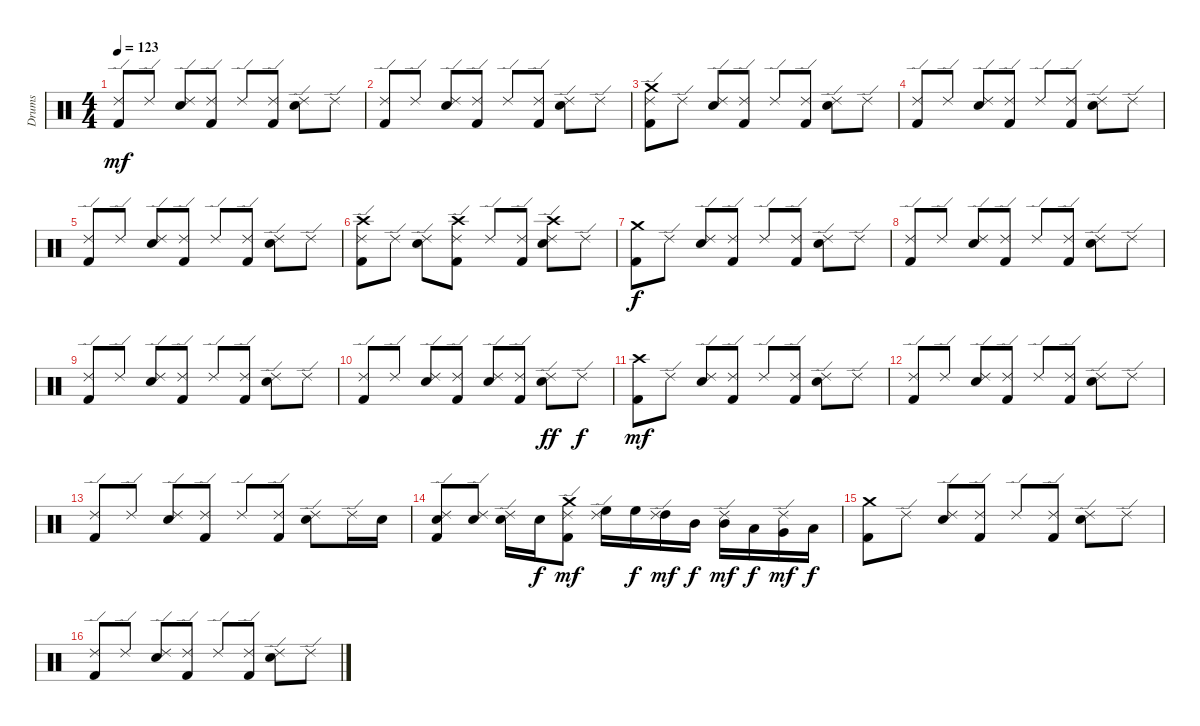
\track ("Drums" "Drums") {instrument percussion}
\staff {score}
\articulation defaults
\ts (4 4)
\tempo 123
\clef neutral
\ks c
("Kick (hit) 2" "Ride (edge) 2").8{dy mf} "Ride (edge) 2".8 ("Electric Snare (hit)" "Ride (edge) 2").8 ("Kick (hit) 2" "Ride (edge) 2").8 "Ride (edge) 2".8 ("Kick (hit) 2" "Ride (edge) 2").8 ("Electric Snare (hit)" "Ride (edge) 2").8 "Ride (edge) 2".8 |
("Kick (hit) 2" "Ride (edge) 2").8 "Ride (edge) 2".8 ("Electric Snare (hit)" "Ride (edge) 2").8 ("Kick (hit) 2" "Ride (edge) 2").8 "Ride (edge) 2".8 ("Kick (hit) 2" "Ride (edge) 2").8 ("Electric Snare (hit)" "Ride (edge) 2").8 "Ride (edge) 2".8 |
("Kick (hit) 2" "Crash medium (hit)" "Ride (edge) 2").8 "Ride (edge) 2".8 ("Electric Snare (hit)" "Ride (edge) 2").8 ("Kick (hit) 2" "Ride (edge) 2").8 "Ride (edge) 2".8 ("Kick (hit) 2" "Ride (edge) 2").8 ("Electric Snare (hit)" "Ride (edge) 2").8 "Ride (edge) 2".8 |
("Kick (hit) 2" "Ride (edge) 2").8 "Ride (edge) 2".8 ("Electric Snare (hit)" "Ride (edge) 2").8 ("Kick (hit) 2" "Ride (edge) 2").8 "Ride (edge) 2".8 ("Kick (hit) 2" "Ride (edge) 2").8 ("Electric Snare (hit)" "Ride (edge) 2").8 "Ride (edge) 2".8 |
("Kick (hit) 2" "Ride (edge) 2").8 "Ride (edge) 2".8 ("Electric Snare (hit)" "Ride (edge) 2").8 ("Kick (hit) 2" "Ride (edge) 2").8 "Ride (edge) 2".8 ("Kick (hit) 2" "Ride (edge) 2").8 ("Electric Snare (hit)" "Ride (edge) 2").8 "Ride (edge) 2".8 |
("Kick (hit) 2" "Crash high (hit)" "Ride (edge) 2").8 "Ride (edge) 2".8 ("Electric Snare (hit)" "Ride (edge) 2").8 ("Kick (hit) 2" "Crash high (hit)" "Ride (edge) 2").8 "Ride (edge) 2".8 ("Kick (hit) 2" "Ride (edge) 2").8 ("Electric Snare (hit)" "Crash high (hit)" "Ride (edge) 2").8 "Ride (edge) 2".8 |
("Kick (hit) 2" "Crash medium (hit)").8{dy f} "Ride (edge) 2".8 ("Electric Snare (hit)" "Ride (edge) 2").8 ("Kick (hit) 2" "Ride (edge) 2").8 "Ride (edge) 2".8 ("Kick (hit) 2" "Ride (edge) 2").8 ("Electric Snare (hit)" "Ride (edge) 2").8 "Ride (edge) 2".8 |
("Kick (hit) 2" "Ride (edge) 2").8 "Ride (edge) 2".8 ("Electric Snare (hit)" "Ride (edge) 2").8 ("Kick (hit) 2" "Ride (edge) 2").8 "Ride (edge) 2".8 ("Kick (hit) 2" "Ride (edge) 2").8 ("Electric Snare (hit)" "Ride (edge) 2").8 "Ride (edge) 2".8 |
("Kick (hit) 2" "Ride (edge) 2").8 "Ride (edge) 2".8 ("Electric Snare (hit)" "Ride (edge) 2").8 ("Kick (hit) 2" "Ride (edge) 2").8 "Ride (edge) 2".8 ("Kick (hit) 2" "Ride (edge) 2").8 ("Electric Snare (hit)" "Ride (edge) 2").8 "Ride (edge) 2".8 |
("Kick (hit) 2" "Ride (edge) 2").8 "Ride (edge) 2".8 ("Electric Snare (hit)" "Ride (edge) 2").8 ("Kick (hit) 2" "Ride (edge) 2").8 ("Electric Snare (hit)" "Ride (edge) 2").8 ("Kick (hit) 2" "Ride (edge) 2").8 ("Electric Snare (hit)" "Ride (edge) 2").8{dy ff} "Ride (edge) 2".8{dy f} |
("Kick (hit) 2" "Crash high (hit)").8{dy mf} "Ride (edge) 2".8 ("Electric Snare (hit)" "Ride (edge) 2").8 ("Kick (hit) 2" "Ride (edge) 2").8 "Ride (edge) 2".8 ("Kick (hit) 2" "Ride (edge) 2").8 ("Electric Snare (hit)" "Ride (edge) 2").8 "Ride (edge) 2".8 |
("Kick (hit) 2" "Ride (edge) 2").8 "Ride (edge) 2".8 ("Electric Snare (hit)" "Ride (edge) 2").8 ("Kick (hit) 2" "Ride (edge) 2").8 "Ride (edge) 2".8 ("Kick (hit) 2" "Ride (edge) 2").8 ("Electric Snare (hit)" "Ride (edge) 2").8 "Ride (edge) 2".8 |
("Kick (hit) 2" "Ride (edge) 2").8 "Ride (edge) 2".8 ("Electric Snare (hit)" "Ride (edge) 2").8 ("Kick (hit) 2" "Ride (edge) 2").8 "Ride (edge) 2".8 ("Kick (hit) 2" "Ride (edge) 2").8 ("Electric Snare (hit)" "Ride (edge) 2").8 "Ride (edge) 2".16 "Electric Snare (hit)".16 |
("Kick (hit) 2" "Electric Snare (hit)" "Ride (edge) 2").8 ("Electric Snare (hit)" "Ride (edge) 2").8 ("Electric Snare (hit)" "Ride (edge) 2").16 "Electric Snare (hit)".16{dy f} ("Kick (hit) 2" "Crash medium (hit)" "Ride (edge) 2").8{dy mf} ("High Floor Tom (hit)" "Ride (edge) 2").16 "High Floor Tom (hit)".16{dy f} ("High Tom (hit)" "Ride (edge) 2").16{dy mf} "Mid Tom (hit)".16{dy f} ("Mid Tom (hit)" "Ride (edge) 2").16{dy mf} "Low Tom (hit)".16{dy f} ("Very Low Tom (hit)" "Ride (edge) 2").16{dy mf} "Low Floor Tom (hit)".16{dy f} |
("Kick (hit) 2" "Crash medium (hit)").8 "Ride (edge) 2".8 ("Electric Snare (hit)" "Ride (edge) 2").8 ("Kick (hit) 2" "Ride (edge) 2").8 "Ride (edge) 2".8 ("Kick (hit) 2" "Ride (edge) 2").8 ("Electric Snare (hit)" "Ride (edge) 2").8 "Ride (edge) 2".8 |
("Kick (hit) 2" "Ride (edge) 2").8 "Ride (edge) 2".8 ("Electric Snare (hit)" "Ride (edge) 2").8 ("Kick (hit) 2" "Ride (edge) 2").8 "Ride (edge) 2".8 ("Kick (hit) 2" "Ride (edge) 2").8 ("Electric Snare (hit)" "Ride (edge) 2").8 "Ride (edge) 2".8
